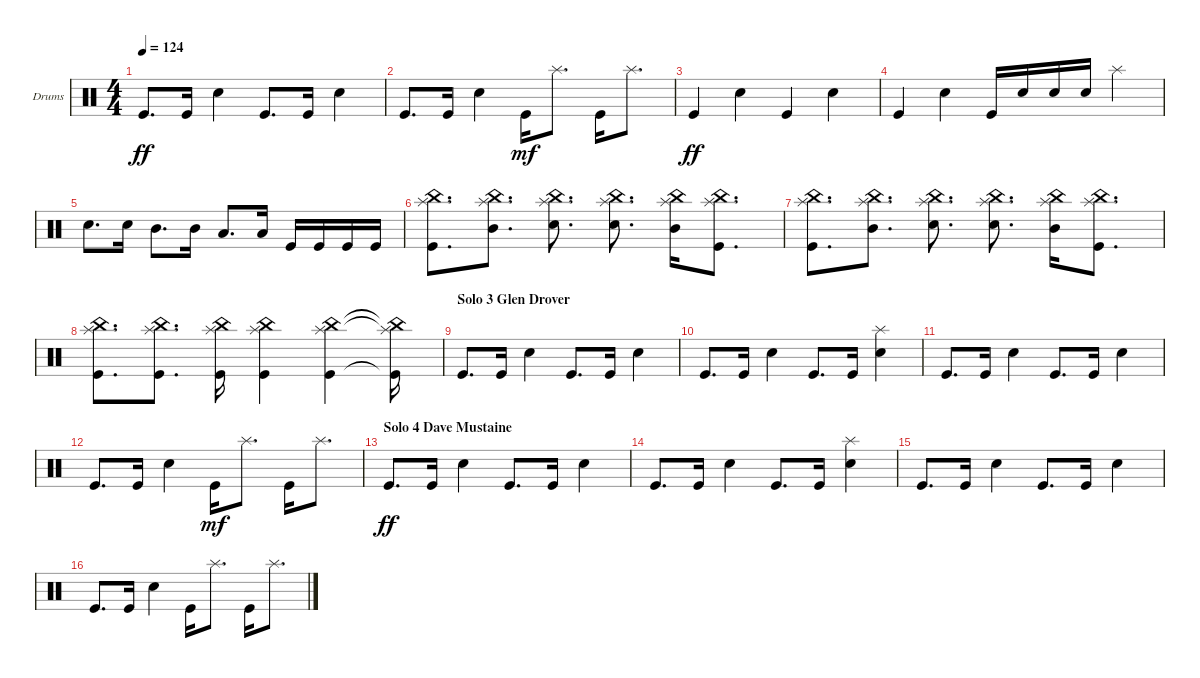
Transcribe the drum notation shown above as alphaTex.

\defaultSystemsLayout 4
\bracketExtendMode groupsimilarinstruments
\firstSystemTrackNameOrientation horizontal
\otherSystemsTrackNameOrientation horizontal
\track ("Nick Menza" "Drums") {instrument percussion}
\staff {score}
\articulation defaults
\ts (4 4)
\tempo 124
\clef neutral
\scale
0.333333
\ks c "Kick (hit)".8{d dy ff} "Kick (hit)".16 "Snare (hit) 2".4 "Kick (hit)".8{d} "Kick (hit)".16 "Snare (hit) 2".4
|
\scale
0.333333 "Kick (hit)".8{d} "Kick (hit)".16 "Snare (hit) 2".4 "Kick (hit)".16{dy mf} "Splash (hit)".8{d} "Kick (hit)".16 "Splash (hit)".8{d} |
\scale
0.333333 "Kick (hit)".4{dy ff} "Snare (hit) 2".4 "Kick (hit)".4 "Snare (hit) 2".4 |
\scale
0.333333 "Kick (hit)".4 "Snare (hit) 2".4 "Kick (hit)".16 "Snare (hit) 2".16 "Snare (hit) 2".16 "Snare (hit) 2".16 "Splash (hit)".4 |
\scale
0.333333 "Snare (hit) 2".8{d} "Snare (hit) 2".16 "Mid Tom (hit)".8{d} "Mid Tom (hit)".16 "Low Tom (hit)".8{d} "Low Tom (hit)".16 "Kick (hit)".16 "Kick (hit)".16 "Kick (hit)".16 "Kick (hit)".16 |
\scale
0.333333 ("China (hit)" "Splash (hit)" "Kick (hit)").8{d} ("Splash (hit)" "China (hit)" "Mid Tom (hit)").8{d} ("Splash (hit)" "China (hit)" "Snare (hit) 2").8{d} ("Splash (hit)" "China (hit)" "Snare (hit) 2").8{d} ("Splash (hit)" "China (hit)" "Mid Tom (hit)").16 ("Splash (hit)" "China (hit)" "Kick (hit)").8{d} |
\scale
0.333333 ("China (hit)" "Splash (hit)" "Kick (hit)").8{d} ("Splash (hit)" "China (hit)" "Mid Tom (hit)").8{d} ("Splash (hit)" "China (hit)" "Snare (hit) 2").8{d} ("Splash (hit)" "China (hit)" "Snare (hit) 2").8{d} ("Splash (hit)" "China (hit)" "Mid Tom (hit)").16 ("Splash (hit)" "China (hit)" "Kick (hit)").8{d} |
\scale
0.333333 ("China (hit)" "Splash (hit)" "Kick (hit)").8{d} ("Splash (hit)" "China (hit)" "Kick (hit)").8{d} ("Splash (hit)" "China (hit)" "Kick (hit)").16 ("Splash (hit)" "China (hit)" "Kick (hit)").4 ("Splash (hit)" "China (hit)" "Kick (hit)").4 ("Splash (hit)"{t} "China (hit)"{t} "Kick (hit)"{t}).16 |
\section ("" "Solo 3 Glen Drover")
\scale
0.333333 "Kick (hit)".8{d} "Kick (hit)".16 "Snare (hit) 2".4 "Kick (hit)".8{d} "Kick (hit)".16 "Snare (hit) 2".4 |
\scale
0.333333 "Kick (hit)".8{d} "Kick (hit)".16 "Snare (hit) 2".4 "Kick (hit)".8{d} "Kick (hit)".16 ("Snare (hit) 2" "Splash (hit)").4 |
\scale
0.333333 "Kick (hit)".8{d} "Kick (hit)".16 "Snare (hit) 2".4 "Kick (hit)".8{d} "Kick (hit)".16 "Snare (hit) 2".4 |
\scale
0.333333 "Kick (hit)".8{d} "Kick (hit)".16 "Snare (hit) 2".4 "Kick (hit)".16{dy mf} "Splash (hit)".8{d} "Kick (hit)".16 "Splash (hit)".8{d} |
\section ("" "Solo 4 Dave Mustaine")
\scale
0.333333 "Kick (hit)".8{d dy ff} "Kick (hit)".16 "Snare (hit) 2".4 "Kick (hit)".8{d} "Kick (hit)".16 "Snare (hit) 2".4 |
\scale
0.333333 "Kick (hit)".8{d} "Kick (hit)".16 "Snare (hit) 2".4 "Kick (hit)".8{d} "Kick (hit)".16 ("Snare (hit) 2" "Splash (hit)").4 |
\scale
0.333333 "Kick (hit)".8{d} "Kick (hit)".16 "Snare (hit) 2".4 "Kick (hit)".8{d} "Kick (hit)".16 "Snare (hit) 2".4 |
\scale
0.333333 "Kick (hit)".8{d} "Kick (hit)".16 "Snare (hit) 2".4 "Kick (hit)".16 "Splash (hit)".8{d} "Kick (hit)".16 "Splash (hit)".8{d}
